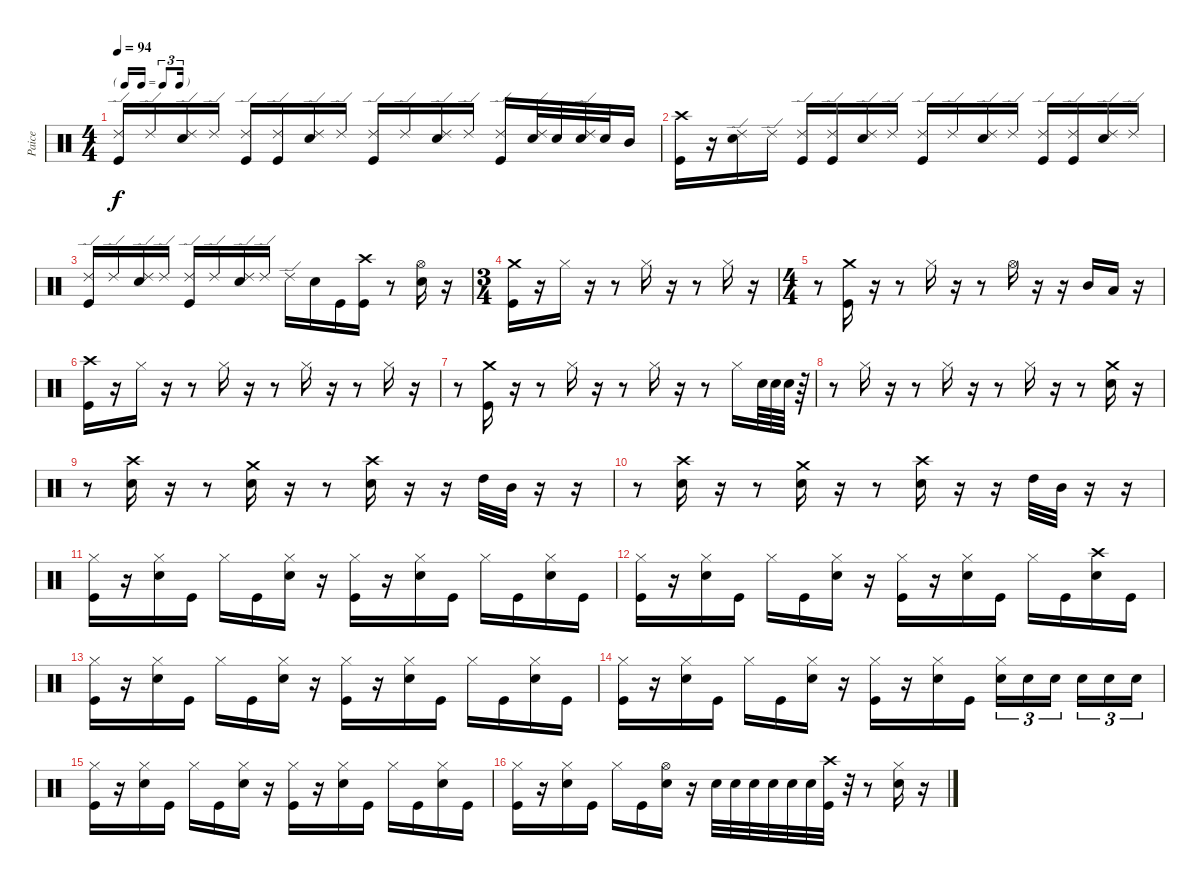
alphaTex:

\track ("Paice" "Paice") {instrument percussion}
\staff {score}
\articulation defaults
\ts (4 4)
\tf triplet16th
\tempo 94
\clef neutral
\ks c
("Ride (edge) 2" "Kick (hit)").16{dy f} "Ride (edge) 2".16 ("Ride (edge) 2" "Snare (hit) 2").16 "Ride (edge) 2".16 ("Ride (edge) 2" "Kick (hit)").16 ("Ride (edge) 2" "Kick (hit)").16 ("Ride (edge) 2" "Snare (hit) 2").16 "Ride (edge) 2".16 ("Ride (edge) 2" "Kick (hit)").16 "Ride (edge) 2".16 ("Ride (edge) 2" "Snare (hit) 2").16 "Ride (edge) 2".16 ("Ride (edge) 2" "Kick (hit)").16 ("Ride (edge) 2" "Snare (hit) 2").32 "Snare (hit) 2".32 ("Ride (edge) 2" "Snare (hit) 2").32 "Snare (hit) 2".32 "Mid Tom (hit)".16 |
("Crash high (hit)" "Kick (hit)").16 r.16 ("Ride (edge) 2" "Snare (hit) 2").16 "Ride (edge) 2".16 ("Ride (edge) 2" "Kick (hit)").16 ("Ride (edge) 2" "Kick (hit)").16 ("Ride (edge) 2" "Snare (hit) 2").16 "Ride (edge) 2".16 ("Ride (edge) 2" "Kick (hit)").16 "Ride (edge) 2".16 ("Ride (edge) 2" "Snare (hit) 2").16 "Ride (edge) 2".16 ("Ride (edge) 2" "Kick (hit)").16 ("Ride (edge) 2" "Kick (hit)").16 ("Ride (edge) 2" "Snare (hit) 2").16 "Ride (edge) 2".16 |
("Ride (edge) 2" "Kick (hit)").16 "Ride (edge) 2".16 ("Ride (edge) 2" "Snare (hit) 2").16 "Ride (edge) 2".16 ("Ride (edge) 2" "Kick (hit)").16 "Ride (edge) 2".16 ("Ride (edge) 2" "Snare (hit) 2").16 "Ride (edge) 2".16 "Ride (edge) 2".16 "Snare (hit) 2".16 "Kick (hit)".16 ("Crash high (hit)" "Kick (hit)").16 r.8 ("Hi-Hat (open)" "Snare (hit) 2").16 r.16 |
\ts (3 4)
("Crash medium (hit)" "Kick (hit)").16 r.16 "Hi-Hat (closed)".16 r.16 r.8 "Hi-Hat (closed)".16 r.16 r.8 "Hi-Hat (closed)".16 r.16 |
\ts (4 4)
r.8 ("Crash medium (hit)" "Kick (hit)").16 r.16 r.8 "Hi-Hat (closed)".16 r.16 r.8 "Hi-Hat (open)".16 r.16 r.16 "Mid Tom (hit)".16 "Low Tom (hit)".16 r.16 |
("Crash high (hit)" "Kick (hit)").16 r.16 "Hi-Hat (closed)".16 r.16 r.8 "Hi-Hat (closed)".16 r.16 r.8 "Hi-Hat (closed)".16 r.16 r.8 "Hi-Hat (closed)".16 r.16 |
r.8 ("Crash medium (hit)" "Kick (hit)").16 r.16 r.8 "Hi-Hat (closed)".16 r.16 r.8 "Hi-Hat (closed)".16 r.16 r.8 "Hi-Hat (closed)".16 "Snare (hit) 2".64 "Snare (hit) 2".64 "Snare (hit) 2".64 r.64 |
r.8 "Hi-Hat (closed)".16 r.16 r.8 "Hi-Hat (closed)".16 r.16 r.8 "Hi-Hat (closed)".16 r.16 r.8 ("Crash medium (hit)" "Snare (hit) 2").16 r.16 |
r.8 ("Crash high (hit)" "Snare (hit) 2").16 r.16 r.8 ("Crash medium (hit)" "Snare (hit) 2").16 r.16 r.8 ("Crash high (hit)" "Snare (hit) 2").16 r.16 r.16 "High Tom (hit)".32 "Mid Tom (hit)".32 r.16 r.16 |
r.8 ("Crash high (hit)" "Snare (hit) 2").16 r.16 r.8 ("Crash medium (hit)" "Snare (hit) 2").16 r.16 r.8 ("Crash high (hit)" "Snare (hit) 2").16 r.16 r.16 "High Tom (hit)".32 "Mid Tom (hit)".32 r.16 r.16 |
("Hi-Hat (closed)" "Kick (hit)").16 r.16 ("Hi-Hat (closed)" "Snare (hit) 2").16 "Kick (hit)".16 "Hi-Hat (closed)".16 "Kick (hit)".16 ("Hi-Hat (closed)" "Snare (hit) 2").16 r.16 ("Hi-Hat (closed)" "Kick (hit)").16 r.16 ("Hi-Hat (closed)" "Snare (hit) 2").16 "Kick (hit)".16 "Hi-Hat (closed)".16 "Kick (hit)".16 ("Hi-Hat (closed)" "Snare (hit) 2").16 "Kick (hit)".16 |
("Hi-Hat (closed)" "Kick (hit)").16 r.16 ("Hi-Hat (closed)" "Snare (hit) 2").16 "Kick (hit)".16 "Hi-Hat (closed)".16 "Kick (hit)".16 ("Hi-Hat (closed)" "Snare (hit) 2").16 r.16 ("Hi-Hat (closed)" "Kick (hit)").16 r.16 ("Hi-Hat (closed)" "Snare (hit) 2").16 "Kick (hit)".16 "Hi-Hat (closed)".16 "Kick (hit)".16 ("Crash high (hit)" "Snare (hit) 2").16 "Kick (hit)".16 |
("Hi-Hat (closed)" "Kick (hit)").16 r.16 ("Hi-Hat (closed)" "Snare (hit) 2").16 "Kick (hit)".16 "Hi-Hat (closed)".16 "Kick (hit)".16 ("Hi-Hat (closed)" "Snare (hit) 2").16 r.16 ("Hi-Hat (closed)" "Kick (hit)").16 r.16 ("Hi-Hat (closed)" "Snare (hit) 2").16 "Kick (hit)".16 "Hi-Hat (closed)".16 "Kick (hit)".16 ("Hi-Hat (closed)" "Snare (hit) 2").16 "Kick (hit)".16 |
("Hi-Hat (closed)" "Kick (hit)").16 r.16 ("Hi-Hat (closed)" "Snare (hit) 2").16 "Kick (hit)".16 "Hi-Hat (closed)".16 "Kick (hit)".16 ("Hi-Hat (closed)" "Snare (hit) 2").16 r.16 ("Hi-Hat (closed)" "Kick (hit)").16 r.16 ("Hi-Hat (closed)" "Snare (hit) 2").16 "Kick (hit)".16 ("Hi-Hat (closed)" "Snare (hit) 2").16{tu (3 2)} "Snare (hit) 2".16{tu (3 2)} "Snare (hit) 2".16{tu (3 2) beam splitsecondary} "Snare (hit) 2".16{tu (3 2)} "Snare (hit) 2".16{tu (3 2)} "Snare (hit) 2".16{tu (3 2)} |
("Hi-Hat (closed)" "Kick (hit)").16 r.16 ("Hi-Hat (closed)" "Snare (hit) 2").16 "Kick (hit)".16 "Hi-Hat (closed)".16 "Kick (hit)".16 ("Hi-Hat (closed)" "Snare (hit) 2").16 r.16 ("Hi-Hat (closed)" "Kick (hit)").16 r.16 ("Hi-Hat (closed)" "Snare (hit) 2").16 "Kick (hit)".16 "Hi-Hat (closed)".16 "Kick (hit)".16 ("Hi-Hat (closed)" "Snare (hit) 2").16 "Kick (hit)".16 |
("Hi-Hat (closed)" "Kick (hit)").16 r.16 ("Hi-Hat (closed)" "Snare (hit) 2").16 "Kick (hit)".16 "Hi-Hat (closed)".16 "Kick (hit)".16 ("Hi-Hat (open)" "Snare (hit) 2").16 r.16 "Snare (hit) 2".32 "Snare (hit) 2".32 "Snare (hit) 2".32 "Snare (hit) 2".32 "Snare (hit) 2".32 "Snare (hit) 2".32 ("Crash high (hit)" "Kick (hit)").32 r.32 r.8 ("Snare (hit) 2" "Hi-Hat (closed)").16 r.16
